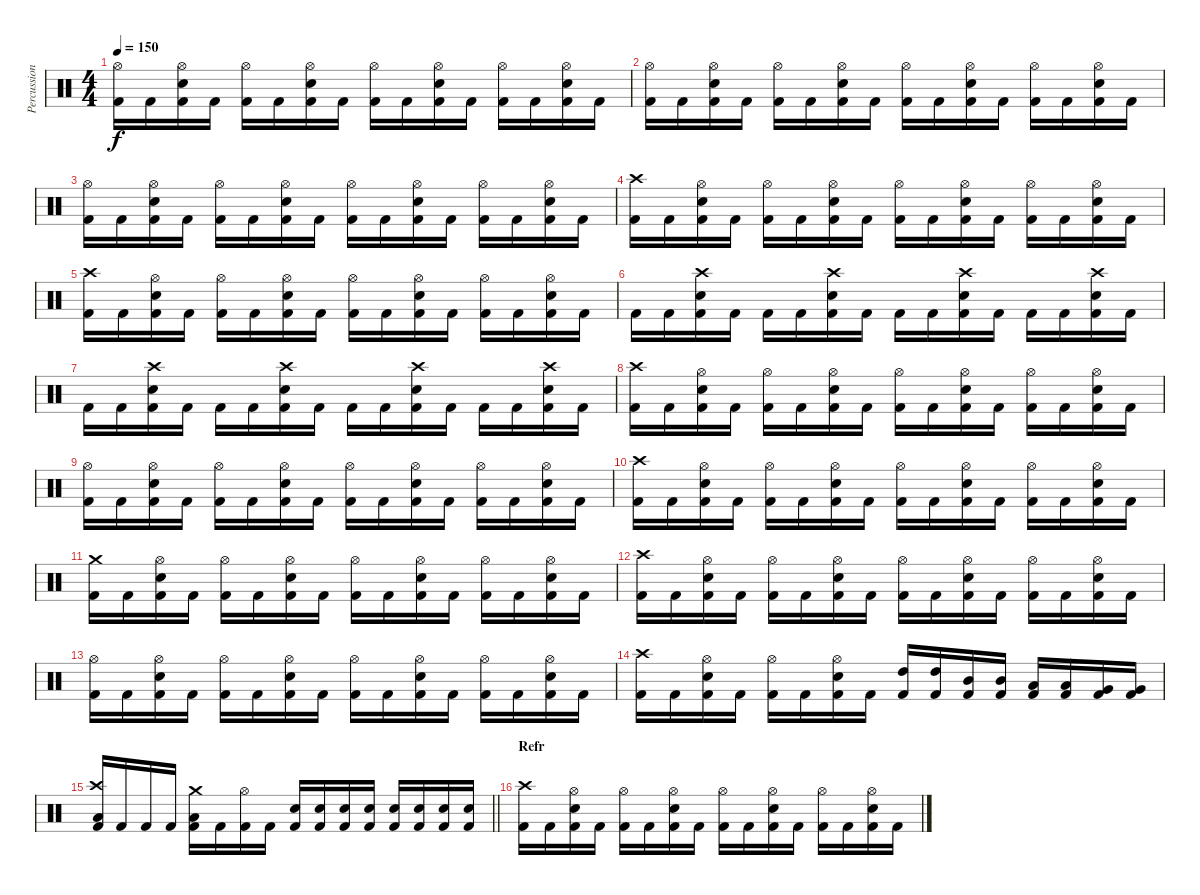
\track ("Percussion" "Percussion") {instrument percussion}
\staff {score}
\articulation defaults
\ts (4 4)
\tempo 150
\clef neutral
\ks c
("Hi-Hat (open)" "Kick (hit) 2").16{dy f} "Kick (hit) 2".16 ("Hi-Hat (open)" "Snare (hit) 2" "Kick (hit) 2").16 "Kick (hit) 2".16 ("Hi-Hat (open)" "Kick (hit) 2").16 "Kick (hit) 2".16 ("Hi-Hat (open)" "Snare (hit) 2" "Kick (hit) 2").16 "Kick (hit) 2".16 ("Hi-Hat (open)" "Kick (hit) 2").16 "Kick (hit) 2".16 ("Hi-Hat (open)" "Snare (hit) 2" "Kick (hit) 2").16 "Kick (hit) 2".16 ("Hi-Hat (open)" "Kick (hit) 2").16 "Kick (hit) 2".16 ("Hi-Hat (open)" "Snare (hit) 2" "Kick (hit) 2").16 "Kick (hit) 2".16 |
("Hi-Hat (open)" "Kick (hit) 2").16 "Kick (hit) 2".16 ("Hi-Hat (open)" "Snare (hit) 2" "Kick (hit) 2").16 "Kick (hit) 2".16 ("Hi-Hat (open)" "Kick (hit) 2").16 "Kick (hit) 2".16 ("Hi-Hat (open)" "Snare (hit) 2" "Kick (hit) 2").16 "Kick (hit) 2".16 ("Hi-Hat (open)" "Kick (hit) 2").16 "Kick (hit) 2".16 ("Hi-Hat (open)" "Snare (hit) 2" "Kick (hit) 2").16 "Kick (hit) 2".16 ("Hi-Hat (open)" "Kick (hit) 2").16 "Kick (hit) 2".16 ("Hi-Hat (open)" "Snare (hit) 2" "Kick (hit) 2").16 "Kick (hit) 2".16 |
("Hi-Hat (open)" "Kick (hit) 2").16 "Kick (hit) 2".16 ("Hi-Hat (open)" "Snare (hit) 2" "Kick (hit) 2").16 "Kick (hit) 2".16 ("Hi-Hat (open)" "Kick (hit) 2").16 "Kick (hit) 2".16 ("Hi-Hat (open)" "Snare (hit) 2" "Kick (hit) 2").16 "Kick (hit) 2".16 ("Hi-Hat (open)" "Kick (hit) 2").16 "Kick (hit) 2".16 ("Hi-Hat (open)" "Snare (hit) 2" "Kick (hit) 2").16 "Kick (hit) 2".16 ("Hi-Hat (open)" "Kick (hit) 2").16 "Kick (hit) 2".16 ("Hi-Hat (open)" "Snare (hit) 2" "Kick (hit) 2").16 "Kick (hit) 2".16 |
("Crash high (hit)" "Kick (hit) 2").16 "Kick (hit) 2".16 ("Hi-Hat (open)" "Snare (hit) 2" "Kick (hit) 2").16 "Kick (hit) 2".16 ("Hi-Hat (open)" "Kick (hit) 2").16 "Kick (hit) 2".16 ("Hi-Hat (open)" "Snare (hit) 2" "Kick (hit) 2").16 "Kick (hit) 2".16 ("Hi-Hat (open)" "Kick (hit) 2").16 "Kick (hit) 2".16 ("Hi-Hat (open)" "Snare (hit) 2" "Kick (hit) 2").16 "Kick (hit) 2".16 ("Hi-Hat (open)" "Kick (hit) 2").16 "Kick (hit) 2".16 ("Hi-Hat (open)" "Snare (hit) 2" "Kick (hit) 2").16 "Kick (hit) 2".16 |
("Crash high (hit)" "Kick (hit) 2").16 "Kick (hit) 2".16 ("Hi-Hat (open)" "Snare (hit) 2" "Kick (hit) 2").16 "Kick (hit) 2".16 ("Hi-Hat (open)" "Kick (hit) 2").16 "Kick (hit) 2".16 ("Hi-Hat (open)" "Snare (hit) 2" "Kick (hit) 2").16 "Kick (hit) 2".16 ("Hi-Hat (open)" "Kick (hit) 2").16 "Kick (hit) 2".16 ("Hi-Hat (open)" "Snare (hit) 2" "Kick (hit) 2").16 "Kick (hit) 2".16 ("Hi-Hat (open)" "Kick (hit) 2").16 "Kick (hit) 2".16 ("Hi-Hat (open)" "Snare (hit) 2" "Kick (hit) 2").16 "Kick (hit) 2".16 |
"Kick (hit) 2".16 "Kick (hit) 2".16 ("Crash high (hit)" "Snare (hit) 2" "Kick (hit) 2").16 "Kick (hit) 2".16 "Kick (hit) 2".16 "Kick (hit) 2".16 ("Crash high (hit)" "Snare (hit) 2" "Kick (hit) 2").16 "Kick (hit) 2".16 "Kick (hit) 2".16 "Kick (hit) 2".16 ("Crash high (hit)" "Snare (hit) 2" "Kick (hit) 2").16 "Kick (hit) 2".16 "Kick (hit) 2".16 "Kick (hit) 2".16 ("Crash high (hit)" "Snare (hit) 2" "Kick (hit) 2").16 "Kick (hit) 2".16 |
"Kick (hit) 2".16 "Kick (hit) 2".16 ("Crash high (hit)" "Snare (hit) 2" "Kick (hit) 2").16 "Kick (hit) 2".16 "Kick (hit) 2".16 "Kick (hit) 2".16 ("Crash high (hit)" "Snare (hit) 2" "Kick (hit) 2").16 "Kick (hit) 2".16 "Kick (hit) 2".16 "Kick (hit) 2".16 ("Crash high (hit)" "Snare (hit) 2" "Kick (hit) 2").16 "Kick (hit) 2".16 "Kick (hit) 2".16 "Kick (hit) 2".16 ("Crash high (hit)" "Snare (hit) 2" "Kick (hit) 2").16 "Kick (hit) 2".16 |
("Crash high (hit)" "Kick (hit) 2").16 "Kick (hit) 2".16 ("Hi-Hat (open)" "Snare (hit) 2" "Kick (hit) 2").16 "Kick (hit) 2".16 ("Hi-Hat (open)" "Kick (hit) 2").16 "Kick (hit) 2".16 ("Hi-Hat (open)" "Snare (hit) 2" "Kick (hit) 2").16 "Kick (hit) 2".16 ("Hi-Hat (open)" "Kick (hit) 2").16 "Kick (hit) 2".16 ("Hi-Hat (open)" "Snare (hit) 2" "Kick (hit) 2").16 "Kick (hit) 2".16 ("Hi-Hat (open)" "Kick (hit) 2").16 "Kick (hit) 2".16 ("Hi-Hat (open)" "Snare (hit) 2" "Kick (hit) 2").16 "Kick (hit) 2".16 |
("Hi-Hat (open)" "Kick (hit) 2").16 "Kick (hit) 2".16 ("Hi-Hat (open)" "Snare (hit) 2" "Kick (hit) 2").16 "Kick (hit) 2".16 ("Hi-Hat (open)" "Kick (hit) 2").16 "Kick (hit) 2".16 ("Hi-Hat (open)" "Snare (hit) 2" "Kick (hit) 2").16 "Kick (hit) 2".16 ("Hi-Hat (open)" "Kick (hit) 2").16 "Kick (hit) 2".16 ("Hi-Hat (open)" "Snare (hit) 2" "Kick (hit) 2").16 "Kick (hit) 2".16 ("Hi-Hat (open)" "Kick (hit) 2").16 "Kick (hit) 2".16 ("Hi-Hat (open)" "Snare (hit) 2" "Kick (hit) 2").16 "Kick (hit) 2".16 |
("Crash high (hit)" "Kick (hit) 2").16 "Kick (hit) 2".16 ("Hi-Hat (open)" "Snare (hit) 2" "Kick (hit) 2").16 "Kick (hit) 2".16 ("Hi-Hat (open)" "Kick (hit) 2").16 "Kick (hit) 2".16 ("Hi-Hat (open)" "Snare (hit) 2" "Kick (hit) 2").16 "Kick (hit) 2".16 ("Hi-Hat (open)" "Kick (hit) 2").16 "Kick (hit) 2".16 ("Hi-Hat (open)" "Snare (hit) 2" "Kick (hit) 2").16 "Kick (hit) 2".16 ("Hi-Hat (open)" "Kick (hit) 2").16 "Kick (hit) 2".16 ("Hi-Hat (open)" "Snare (hit) 2" "Kick (hit) 2").16 "Kick (hit) 2".16 |
("Crash medium (hit)" "Kick (hit) 2").16 "Kick (hit) 2".16 ("Hi-Hat (open)" "Snare (hit) 2" "Kick (hit) 2").16 "Kick (hit) 2".16 ("Hi-Hat (open)" "Kick (hit) 2").16 "Kick (hit) 2".16 ("Hi-Hat (open)" "Snare (hit) 2" "Kick (hit) 2").16 "Kick (hit) 2".16 ("Hi-Hat (open)" "Kick (hit) 2").16 "Kick (hit) 2".16 ("Hi-Hat (open)" "Snare (hit) 2" "Kick (hit) 2").16 "Kick (hit) 2".16 ("Hi-Hat (open)" "Kick (hit) 2").16 "Kick (hit) 2".16 ("Hi-Hat (open)" "Snare (hit) 2" "Kick (hit) 2").16 "Kick (hit) 2".16 |
("Crash high (hit)" "Kick (hit) 2").16 "Kick (hit) 2".16 ("Hi-Hat (open)" "Snare (hit) 2" "Kick (hit) 2").16 "Kick (hit) 2".16 ("Hi-Hat (open)" "Kick (hit) 2").16 "Kick (hit) 2".16 ("Hi-Hat (open)" "Snare (hit) 2" "Kick (hit) 2").16 "Kick (hit) 2".16 ("Hi-Hat (open)" "Kick (hit) 2").16 "Kick (hit) 2".16 ("Hi-Hat (open)" "Snare (hit) 2" "Kick (hit) 2").16 "Kick (hit) 2".16 ("Hi-Hat (open)" "Kick (hit) 2").16 "Kick (hit) 2".16 ("Hi-Hat (open)" "Snare (hit) 2" "Kick (hit) 2").16 "Kick (hit) 2".16 |
("Hi-Hat (open)" "Kick (hit) 2").16 "Kick (hit) 2".16 ("Hi-Hat (open)" "Snare (hit) 2" "Kick (hit) 2").16 "Kick (hit) 2".16 ("Hi-Hat (open)" "Kick (hit) 2").16 "Kick (hit) 2".16 ("Hi-Hat (open)" "Snare (hit) 2" "Kick (hit) 2").16 "Kick (hit) 2".16 ("Hi-Hat (open)" "Kick (hit) 2").16 "Kick (hit) 2".16 ("Hi-Hat (open)" "Snare (hit) 2" "Kick (hit) 2").16 "Kick (hit) 2".16 ("Hi-Hat (open)" "Kick (hit) 2").16 "Kick (hit) 2".16 ("Hi-Hat (open)" "Snare (hit) 2" "Kick (hit) 2").16 "Kick (hit) 2".16 |
("Crash high (hit)" "Kick (hit) 2").16 "Kick (hit) 2".16 ("Hi-Hat (open)" "Snare (hit) 2" "Kick (hit) 2").16 "Kick (hit) 2".16 ("Hi-Hat (open)" "Kick (hit) 2").16 "Kick (hit) 2".16 ("Hi-Hat (open)" "Snare (hit) 2" "Kick (hit) 2").16 "Kick (hit) 2".16 ("High Tom (hit)" "Kick (hit) 2").16 ("High Tom (hit)" "Kick (hit) 2").16 ("Mid Tom (hit)" "Kick (hit) 2").16 ("Mid Tom (hit)" "Kick (hit) 2").16 ("Low Tom (hit)" "Kick (hit) 2").16 ("Low Tom (hit)" "Kick (hit) 2").16 ("Very Low Tom (hit)" "Kick (hit) 2").16 ("Very Low Tom (hit)" "Kick (hit) 2").16 |
\barLineRight lightlight
("Crash high (hit)" "Low Floor Tom (hit)" "Kick (hit) 2").16 "Kick (hit) 2".16 "Kick (hit) 2".16 "Kick (hit) 2".16 ("Crash medium (hit)" "Low Floor Tom (hit)" "Kick (hit) 2").16 "Kick (hit) 2".16 ("Hi-Hat (open)" "Kick (hit) 2").16 "Kick (hit) 2".16 ("Snare (hit) 2" "Kick (hit) 2").16 ("Snare (hit) 2" "Kick (hit) 2").16 ("Snare (hit) 2" "Kick (hit) 2").16 ("Snare (hit) 2" "Kick (hit) 2").16 ("Snare (hit) 2" "Kick (hit) 2").16 ("Snare (hit) 2" "Kick (hit) 2").16 ("Snare (hit) 2" "Kick (hit) 2").16 ("Snare (hit)" "Kick (hit) 2").16 |
\section ("" "Refr")
("Crash high (hit)" "Kick (hit) 2").16 "Kick (hit) 2".16 ("Hi-Hat (open)" "Snare (hit) 2" "Kick (hit) 2").16 "Kick (hit) 2".16 ("Hi-Hat (open)" "Kick (hit) 2").16 "Kick (hit) 2".16 ("Hi-Hat (open)" "Snare (hit) 2" "Kick (hit) 2").16 "Kick (hit) 2".16 ("Hi-Hat (open)" "Kick (hit) 2").16 "Kick (hit) 2".16 ("Hi-Hat (open)" "Snare (hit) 2" "Kick (hit) 2").16 "Kick (hit) 2".16 ("Hi-Hat (open)" "Kick (hit) 2").16 "Kick (hit) 2".16 ("Hi-Hat (open)" "Snare (hit) 2" "Kick (hit) 2").16 "Kick (hit) 2".16
